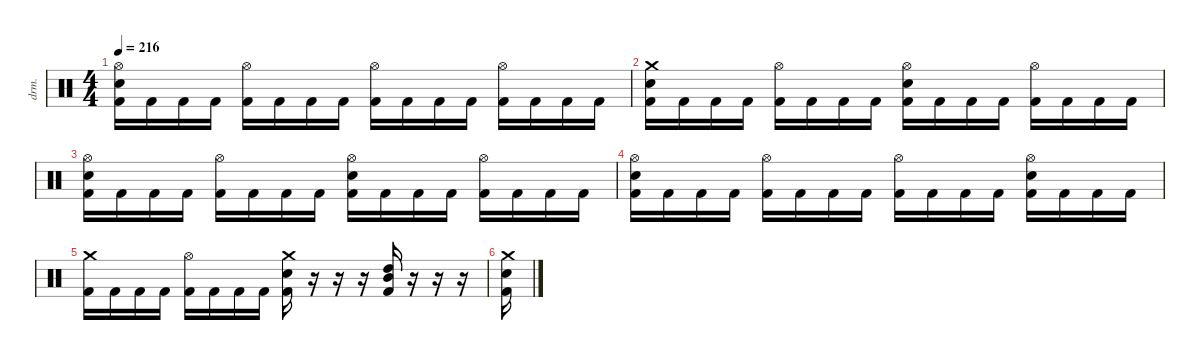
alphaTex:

\hideDynamics
\bracketExtendMode nobrackets
\track ("Drums" "drm.") {instrument percussion}
\staff {score}
\articulation defaults
\ts (4 4)
\tempo 216
\clef neutral
\ks c
("Kick (hit) 2" "Snare (hit) 2" "Hi-Hat (open)").16{dy mf beam Down} "Kick (hit) 2".16{beam Down} "Kick (hit) 2".16{beam Down} "Kick (hit) 2".16{beam Down} ("Kick (hit) 2" "Hi-Hat (open)").16{beam Down} "Kick (hit) 2".16{beam Down} "Kick (hit) 2".16{beam Down} "Kick (hit) 2".16{beam Down} ("Hi-Hat (open)" "Kick (hit) 2").16{beam Down} "Kick (hit) 2".16{beam Down} "Kick (hit) 2".16{beam Down} "Kick (hit) 2".16{beam Down} ("Kick (hit) 2" "Hi-Hat (open)").16{beam Down} "Kick (hit) 2".16{beam Down} "Kick (hit) 2".16{beam Down} "Kick (hit) 2".16{beam Down} |
("Kick (hit) 2" "Crash medium (hit)" "Snare (hit) 2").16{beam Down} "Kick (hit) 2".16{beam Down} "Kick (hit) 2".16{beam Down} "Kick (hit) 2".16{beam Down} ("Kick (hit) 2" "Hi-Hat (open)").16{beam Down} "Kick (hit) 2".16{beam Down} "Kick (hit) 2".16{beam Down} "Kick (hit) 2".16{beam Down} ("Kick (hit) 2" "Hi-Hat (open)" "Snare (hit) 2").16{beam Down} "Kick (hit) 2".16{beam Down} "Kick (hit) 2".16{beam Down} "Kick (hit) 2".16{beam Down} ("Kick (hit) 2" "Hi-Hat (open)").16{beam Down} "Kick (hit) 2".16{beam Down} "Kick (hit) 2".16{beam Down} "Kick (hit) 2".16{beam Down} |
("Kick (hit) 2" "Hi-Hat (open)" "Snare (hit) 2").16{beam Down} "Kick (hit) 2".16{beam Down} "Kick (hit) 2".16{beam Down} "Kick (hit) 2".16{beam Down} ("Kick (hit) 2" "Hi-Hat (open)").16{beam Down} "Kick (hit) 2".16{beam Down} "Kick (hit) 2".16{beam Down} "Kick (hit) 2".16{beam Down} ("Kick (hit) 2" "Hi-Hat (open)" "Snare (hit) 2").16{beam Down} "Kick (hit) 2".16{beam Down} "Kick (hit) 2".16{beam Down} "Kick (hit) 2".16{beam Down} ("Kick (hit) 2" "Hi-Hat (open)").16{beam Down} "Kick (hit) 2".16{beam Down} "Kick (hit) 2".16{beam Down} "Kick (hit) 2".16{beam Down} |
("Kick (hit) 2" "Hi-Hat (open)" "Snare (hit) 2").16{beam Down} "Kick (hit) 2".16{beam Down} "Kick (hit) 2".16{beam Down} "Kick (hit) 2".16{beam Down} ("Kick (hit) 2" "Hi-Hat (open)").16{beam Down} "Kick (hit) 2".16{beam Down} "Kick (hit) 2".16{beam Down} "Kick (hit) 2".16{beam Down} ("Kick (hit) 2" "Hi-Hat (open)").16{beam Down} "Kick (hit) 2".16{beam Down} "Kick (hit) 2".16{beam Down} "Kick (hit) 2".16{beam Down} ("Kick (hit) 2" "Hi-Hat (open)" "Snare (hit) 2").16{beam Down} "Kick (hit) 2".16{beam Down} "Kick (hit) 2".16{beam Down} "Kick (hit) 2".16{beam Down} |
("Kick (hit) 2" "Crash medium (hit)").16{beam Down} "Kick (hit) 2".16{beam Down} "Kick (hit) 2".16{beam Down} "Kick (hit) 2".16{beam Down} ("Kick (hit) 2" "Hi-Hat (open)").16{beam Down} "Kick (hit) 2".16{beam Down} "Kick (hit) 2".16{beam Down} "Kick (hit) 2".16{beam Down} ("Kick (hit) 2" "Snare (hit) 2" "Crash medium (hit)").16{beam Down} r.16{beam Down} r.16{beam Down} r.16{beam Down} ("Kick (hit) 2" "High Tom (hit)" "Mid Tom (hit)").16{beam Up} r.16{beam Down} r.16{beam Down} r.16{beam Down} |
("Kick (hit) 2" "Crash medium (hit)" "Snare (hit) 2").16{beam Down}
